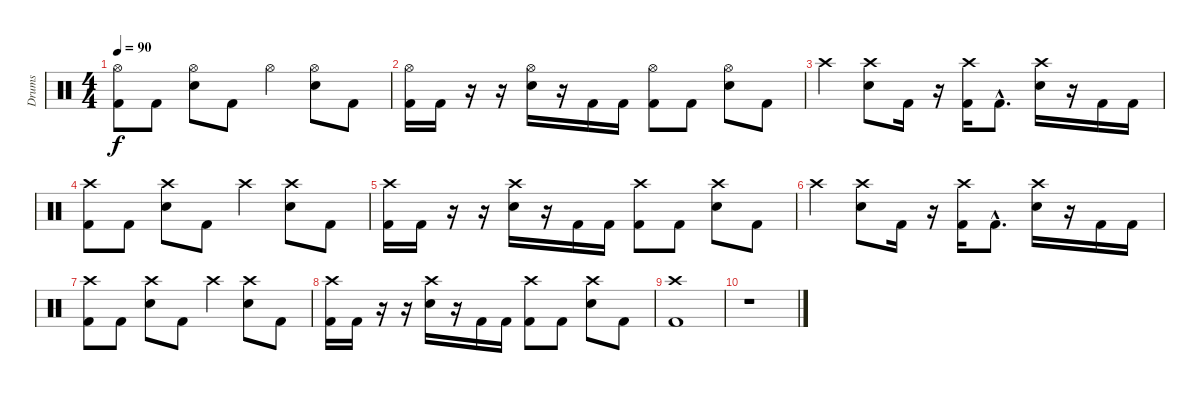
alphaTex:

\track ("Drums" "Drums") {instrument percussion}
\staff {score}
\articulation defaults
\ts (4 4)
\tempo 90
\clef neutral
\ks c
("Hi-Hat (open)" "Kick (hit) 2").8{dy f} "Kick (hit) 2".8 ("Hi-Hat (open)" "Electric Snare (hit)").8 "Kick (hit) 2".8 "Hi-Hat (open)".4 ("Hi-Hat (open)" "Electric Snare (hit)").8 "Kick (hit) 2".8 |
("Hi-Hat (open)" "Kick (hit) 2").16 "Kick (hit) 2".16 r.16 r.16 ("Hi-Hat (open)" "Electric Snare (hit)").16 r.16 "Kick (hit) 2".16 "Kick (hit) 2".16 ("Hi-Hat (open)" "Kick (hit) 2").8 "Kick (hit) 2".8 ("Hi-Hat (open)" "Electric Snare (hit)").8 "Kick (hit) 2".8 |
"Crash high (hit)".4 ("Crash high (hit)" "Electric Snare (hit)").8 "Kick (hit) 2".16 r.16 ("Crash high (hit)" "Kick (hit) 2").16 "Kick (hit) 2"{hac}.8{d} ("Crash high (hit)" "Electric Snare (hit)").16 r.16 "Kick (hit) 2".16 "Kick (hit) 2".16 |
("Crash high (hit)" "Kick (hit) 2").8 "Kick (hit) 2".8 ("Crash high (hit)" "Electric Snare (hit)").8 "Kick (hit) 2".8 "Crash high (hit)".4 ("Crash high (hit)" "Electric Snare (hit)").8 "Kick (hit) 2".8 |
("Crash high (hit)" "Kick (hit) 2").16 "Kick (hit) 2".16 r.16 r.16 ("Crash high (hit)" "Electric Snare (hit)").16 r.16 "Kick (hit) 2".16 "Kick (hit) 2".16 ("Crash high (hit)" "Kick (hit) 2").8 "Kick (hit) 2".8 ("Crash high (hit)" "Electric Snare (hit)").8 "Kick (hit) 2".8 |
"Crash high (hit)".4 ("Crash high (hit)" "Electric Snare (hit)").8 "Kick (hit) 2".16 r.16 ("Crash high (hit)" "Kick (hit) 2").16 "Kick (hit) 2"{hac}.8{d} ("Crash high (hit)" "Electric Snare (hit)").16 r.16 "Kick (hit) 2".16 "Kick (hit) 2".16 |
("Crash high (hit)" "Kick (hit) 2").8 "Kick (hit) 2".8 ("Crash high (hit)" "Electric Snare (hit)").8 "Kick (hit) 2".8 "Crash high (hit)".4 ("Crash high (hit)" "Electric Snare (hit)").8 "Kick (hit) 2".8 |
("Crash high (hit)" "Kick (hit) 2").16 "Kick (hit) 2".16 r.16 r.16 ("Crash high (hit)" "Electric Snare (hit)").16 r.16 "Kick (hit) 2".16 "Kick (hit) 2".16 ("Crash high (hit)" "Kick (hit) 2").8 "Kick (hit) 2".8 ("Crash high (hit)" "Electric Snare (hit)").8 "Kick (hit) 2".8 |
("Crash high (hit)" "Kick (hit) 2").1 |
r.1
